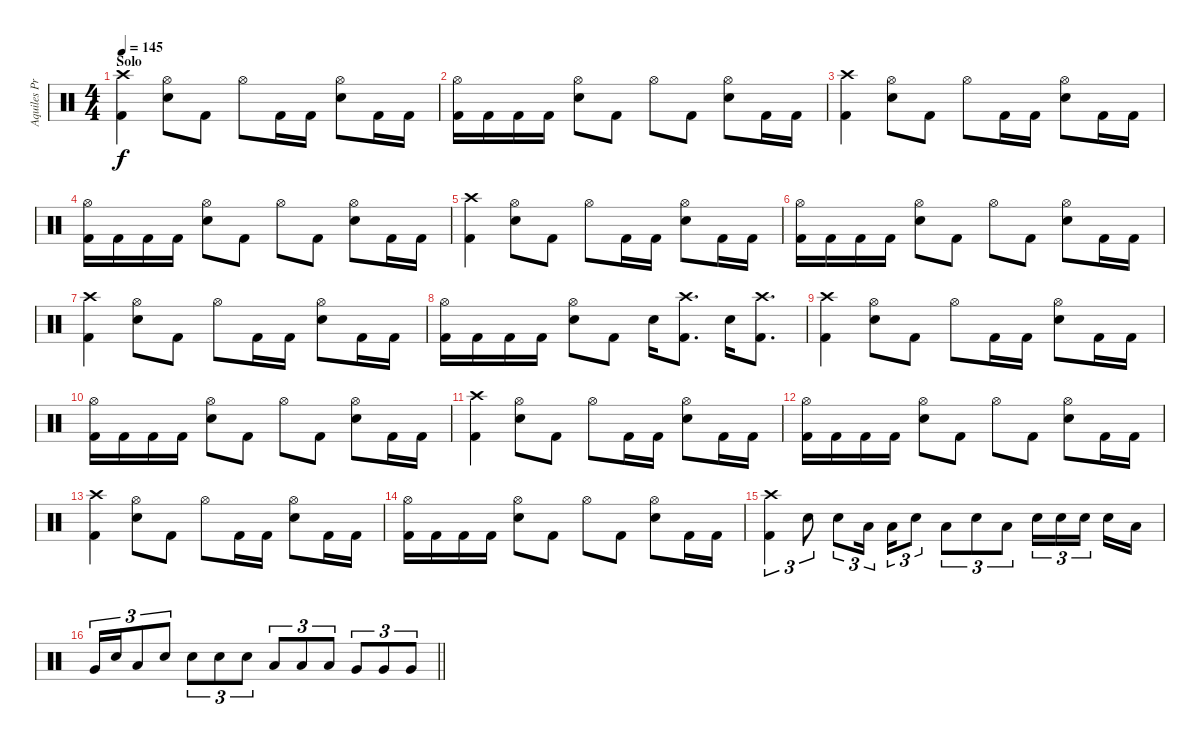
\track ("Aquiles Priester" "Aquiles Pr") {instrument percussion}
\staff {score}
\articulation defaults
\ts (4 4)
\section ("" "Solo")
\tempo 145
\clef neutral
\ks c
("Crash high (hit)" "Kick (hit) 2").4{dy f} ("Hi-Hat (open)" "Electric Snare (hit)").8 "Kick (hit) 2".8 "Hi-Hat (open)".8 "Kick (hit) 2".16 "Kick (hit) 2".16 ("Hi-Hat (open)" "Electric Snare (hit)").8 "Kick (hit) 2".16 "Kick (hit) 2".16 |
("Hi-Hat (open)" "Kick (hit) 2").16 "Kick (hit) 2".16 "Kick (hit) 2".16 "Kick (hit) 2".16 ("Hi-Hat (open)" "Electric Snare (hit)").8 "Kick (hit) 2".8 "Hi-Hat (open)".8 "Kick (hit) 2".8 ("Hi-Hat (open)" "Electric Snare (hit)").8 "Kick (hit) 2".16 "Kick (hit) 2".16 |
("Crash high (hit)" "Kick (hit) 2").4 ("Hi-Hat (open)" "Electric Snare (hit)").8 "Kick (hit) 2".8 "Hi-Hat (open)".8 "Kick (hit) 2".16 "Kick (hit) 2".16 ("Hi-Hat (open)" "Electric Snare (hit)").8 "Kick (hit) 2".16 "Kick (hit) 2".16 |
("Hi-Hat (open)" "Kick (hit) 2").16 "Kick (hit) 2".16 "Kick (hit) 2".16 "Kick (hit) 2".16 ("Hi-Hat (open)" "Electric Snare (hit)").8 "Kick (hit) 2".8 "Hi-Hat (open)".8 "Kick (hit) 2".8 ("Hi-Hat (open)" "Electric Snare (hit)").8 "Kick (hit) 2".16 "Kick (hit) 2".16 |
("Crash high (hit)" "Kick (hit) 2").4 ("Hi-Hat (open)" "Electric Snare (hit)").8 "Kick (hit) 2".8 "Hi-Hat (open)".8 "Kick (hit) 2".16 "Kick (hit) 2".16 ("Hi-Hat (open)" "Electric Snare (hit)").8 "Kick (hit) 2".16 "Kick (hit) 2".16 |
("Hi-Hat (open)" "Kick (hit) 2").16 "Kick (hit) 2".16 "Kick (hit) 2".16 "Kick (hit) 2".16 ("Hi-Hat (open)" "Electric Snare (hit)").8 "Kick (hit) 2".8 "Hi-Hat (open)".8 "Kick (hit) 2".8 ("Hi-Hat (open)" "Electric Snare (hit)").8 "Kick (hit) 2".16 "Kick (hit) 2".16 |
("Crash high (hit)" "Kick (hit) 2").4 ("Hi-Hat (open)" "Electric Snare (hit)").8 "Kick (hit) 2".8 "Hi-Hat (open)".8 "Kick (hit) 2".16 "Kick (hit) 2".16 ("Hi-Hat (open)" "Electric Snare (hit)").8 "Kick (hit) 2".16 "Kick (hit) 2".16 |
("Hi-Hat (open)" "Kick (hit) 2").16 "Kick (hit) 2".16 "Kick (hit) 2".16 "Kick (hit) 2".16 ("Hi-Hat (open)" "Electric Snare (hit)").8 "Kick (hit) 2".8 "Electric Snare (hit)".16 ("Crash high (hit)" "Kick (hit) 2").8{d} "Electric Snare (hit)".16 ("Crash high (hit)" "Kick (hit) 2").8{d} |
("Crash high (hit)" "Kick (hit) 2").4 ("Hi-Hat (open)" "Electric Snare (hit)").8 "Kick (hit) 2".8 "Hi-Hat (open)".8 "Kick (hit) 2".16 "Kick (hit) 2".16 ("Hi-Hat (open)" "Electric Snare (hit)").8 "Kick (hit) 2".16 "Kick (hit) 2".16 |
("Hi-Hat (open)" "Kick (hit) 2").16 "Kick (hit) 2".16 "Kick (hit) 2".16 "Kick (hit) 2".16 ("Hi-Hat (open)" "Electric Snare (hit)").8 "Kick (hit) 2".8 "Hi-Hat (open)".8 "Kick (hit) 2".8 ("Hi-Hat (open)" "Electric Snare (hit)").8 "Kick (hit) 2".16 "Kick (hit) 2".16 |
("Crash high (hit)" "Kick (hit) 2").4 ("Hi-Hat (open)" "Electric Snare (hit)").8 "Kick (hit) 2".8 "Hi-Hat (open)".8 "Kick (hit) 2".16 "Kick (hit) 2".16 ("Hi-Hat (open)" "Electric Snare (hit)").8 "Kick (hit) 2".16 "Kick (hit) 2".16 |
("Hi-Hat (open)" "Kick (hit) 2").16 "Kick (hit) 2".16 "Kick (hit) 2".16 "Kick (hit) 2".16 ("Hi-Hat (open)" "Electric Snare (hit)").8 "Kick (hit) 2".8 "Hi-Hat (open)".8 "Kick (hit) 2".8 ("Hi-Hat (open)" "Electric Snare (hit)").8 "Kick (hit) 2".16 "Kick (hit) 2".16 |
("Crash high (hit)" "Kick (hit) 2").4 ("Hi-Hat (open)" "Electric Snare (hit)").8 "Kick (hit) 2".8 "Hi-Hat (open)".8 "Kick (hit) 2".16 "Kick (hit) 2".16 ("Hi-Hat (open)" "Electric Snare (hit)").8 "Kick (hit) 2".16 "Kick (hit) 2".16 |
("Hi-Hat (open)" "Kick (hit) 2").16 "Kick (hit) 2".16 "Kick (hit) 2".16 "Kick (hit) 2".16 ("Hi-Hat (open)" "Electric Snare (hit)").8 "Kick (hit) 2".8 "Hi-Hat (open)".8 "Kick (hit) 2".8 ("Hi-Hat (open)" "Electric Snare (hit)").8 "Kick (hit) 2".16 "Kick (hit) 2".16 |
("Crash high (hit)" "Kick (hit) 2").4{tu (3 2)} "Electric Snare (hit)".8{tu (3 2)} "Electric Snare (hit)".8{tu (3 2)} "Low Tom (hit)".16{tu (3 2)} "Low Tom (hit)".16{tu (3 2)} "Electric Snare (hit)".8{tu (3 2)} "Low Tom (hit)".8{tu (3 2)} "Electric Snare (hit)".8{tu (3 2)} "Low Tom (hit)".8{tu (3 2)} "Electric Snare (hit)".16{tu (3 2)} "Electric Snare (hit)".16{tu (3 2)} "Electric Snare (hit)".16{tu (3 2)} "Electric Snare (hit)".16 "Low Tom (hit)".16 |
\barLineRight lightlight "Very Low Tom (hit)".16{tu (3 2)} "Electric Snare (hit)".16{tu (3 2)} "Low Tom (hit)".8{tu (3 2)} "Electric Snare (hit)".8{tu (3 2)} "Electric Snare (hit)".8{tu (3 2)} "Electric Snare (hit)".8{tu (3 2)} "Electric Snare (hit)".8{tu (3 2)} "Low Tom (hit)".8{tu (3 2)} "Low Tom (hit)".8{tu (3 2)} "Low Tom (hit)".8{tu (3 2)} "Very Low Tom (hit)".8{tu (3 2)} "Very Low Tom (hit)".8{tu (3 2)} "Very Low Tom (hit)".8{tu (3 2)}
